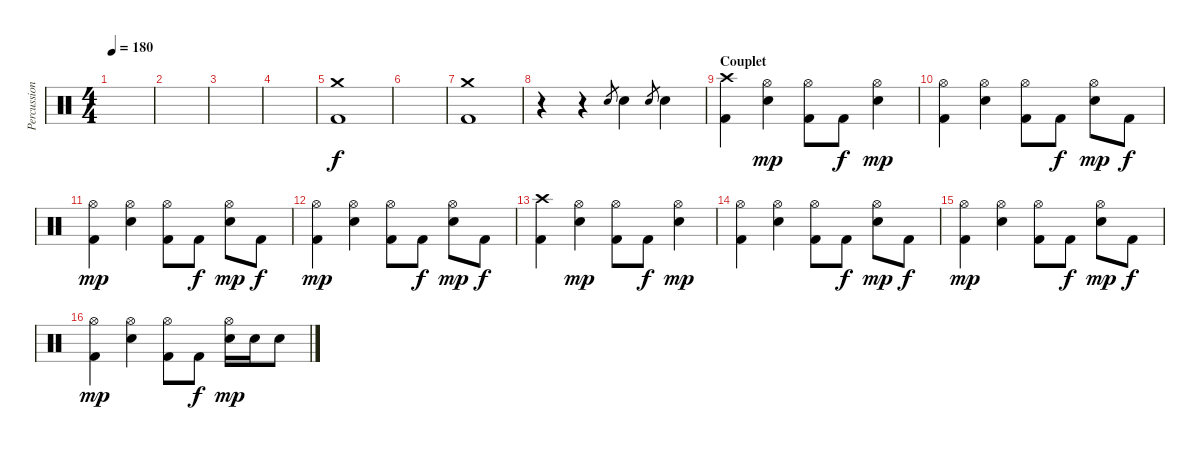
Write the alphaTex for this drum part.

\track ("Percussions" "Percussion") {instrument percussion}
\staff {score}
\articulation defaults
\ts (4 4)
\tempo 180
\clef neutral
\ks c
|
|
|
|
("Crash medium (hit)" "Kick (hit) 2").1 |
|
("Crash medium (hit)" "Kick (hit) 2").1 |
r.4 r.4 "Electric Snare (hit)".8{gr} "Electric Snare (hit)".4 "Electric Snare (hit)".8{gr} "Electric Snare (hit)".4 |
\section ("" "Couplet")
("Crash high (hit)" "Kick (hit) 2").4 ("Hi-Hat (open)" "Electric Snare (hit)").4{dy mp} ("Hi-Hat (open)" "Kick (hit) 2").8 "Kick (hit) 2".8{dy f} ("Hi-Hat (open)" "Electric Snare (hit)").4{dy mp} |
("Hi-Hat (open)" "Kick (hit) 2").4 ("Hi-Hat (open)" "Electric Snare (hit)").4 ("Hi-Hat (open)" "Kick (hit) 2").8 "Kick (hit) 2".8{dy f} ("Hi-Hat (open)" "Electric Snare (hit)").8{dy mp} "Kick (hit) 2".8{dy f} |
("Hi-Hat (open)" "Kick (hit) 2").4{dy mp} ("Hi-Hat (open)" "Electric Snare (hit)").4 ("Hi-Hat (open)" "Kick (hit) 2").8 "Kick (hit) 2".8{dy f} ("Hi-Hat (open)" "Electric Snare (hit)").8{dy mp} "Kick (hit) 2".8{dy f} |
("Hi-Hat (open)" "Kick (hit) 2").4{dy mp} ("Hi-Hat (open)" "Electric Snare (hit)").4 ("Hi-Hat (open)" "Kick (hit) 2").8 "Kick (hit) 2".8{dy f} ("Hi-Hat (open)" "Electric Snare (hit)").8{dy mp} "Kick (hit) 2".8{dy f} |
("Crash high (hit)" "Kick (hit) 2").4 ("Hi-Hat (open)" "Electric Snare (hit)").4{dy mp} ("Hi-Hat (open)" "Kick (hit) 2").8 "Kick (hit) 2".8{dy f} ("Hi-Hat (open)" "Electric Snare (hit)").4{dy mp} |
("Hi-Hat (open)" "Kick (hit) 2").4 ("Hi-Hat (open)" "Electric Snare (hit)").4 ("Hi-Hat (open)" "Kick (hit) 2").8 "Kick (hit) 2".8{dy f} ("Hi-Hat (open)" "Electric Snare (hit)").8{dy mp} "Kick (hit) 2".8{dy f} |
("Hi-Hat (open)" "Kick (hit) 2").4{dy mp} ("Hi-Hat (open)" "Electric Snare (hit)").4 ("Hi-Hat (open)" "Kick (hit) 2").8 "Kick (hit) 2".8{dy f} ("Hi-Hat (open)" "Electric Snare (hit)").8{dy mp} "Kick (hit) 2".8{dy f} |
("Hi-Hat (open)" "Kick (hit) 2").4{dy mp} ("Hi-Hat (open)" "Electric Snare (hit)").4 ("Hi-Hat (open)" "Kick (hit) 2").8 "Kick (hit) 2".8{dy f} ("Hi-Hat (open)" "Electric Snare (hit)").16{dy mp} "Electric Snare (hit)".16 "Electric Snare (hit)".8
